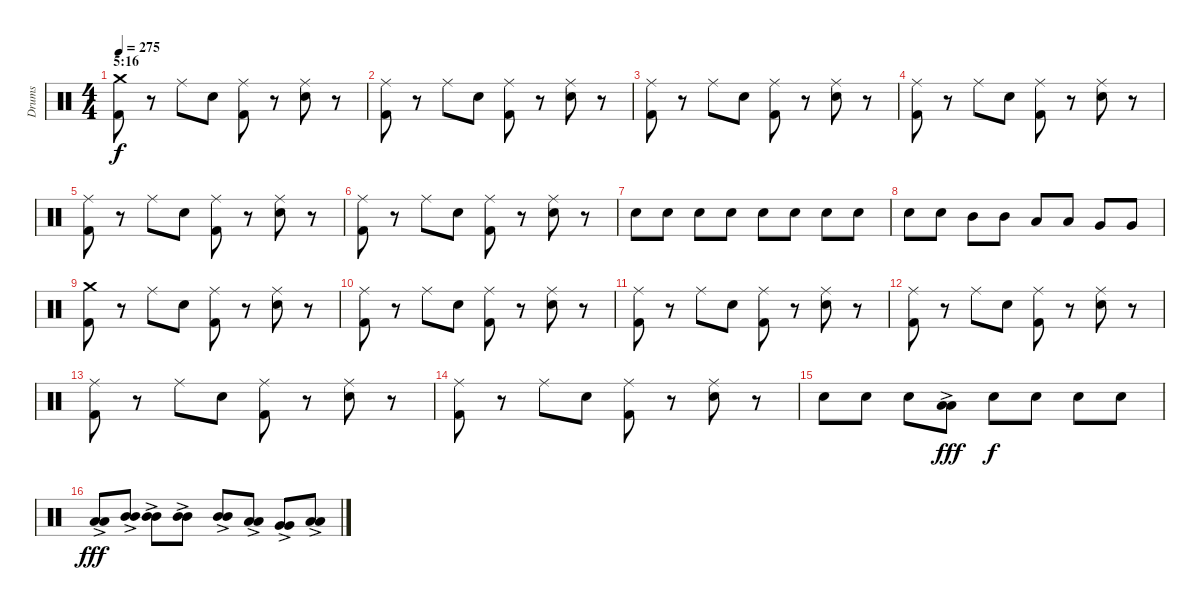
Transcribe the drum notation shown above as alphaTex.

\track ("Drums" "Drums") {instrument percussion}
\staff {score}
\articulation defaults
\ts (4 4)
\section ("" "5:16")
\tempo 275
\clef neutral
\ks c
("Crash medium (hit)" "Kick (hit) 2").8{dy f} r.8 "Ride (middle)".8 "Electric Snare (hit)".8 ("Ride (middle)" "Kick (hit) 2").8 r.8 ("Ride (middle)" "Electric Snare (hit)").8 r.8 |
("Ride (middle)" "Kick (hit) 2").8 r.8 "Ride (middle)".8 "Electric Snare (hit)".8 ("Ride (middle)" "Kick (hit) 2").8 r.8 ("Ride (middle)" "Electric Snare (hit)").8 r.8 |
("Ride (middle)" "Kick (hit) 2").8 r.8 "Ride (middle)".8 "Electric Snare (hit)".8 ("Ride (middle)" "Kick (hit) 2").8 r.8 ("Ride (middle)" "Electric Snare (hit)").8 r.8 |
("Ride (middle)" "Kick (hit) 2").8 r.8 "Ride (middle)".8 "Electric Snare (hit)".8 ("Ride (middle)" "Kick (hit) 2").8 r.8 ("Ride (middle)" "Electric Snare (hit)").8 r.8 |
("Ride (middle)" "Kick (hit) 2").8 r.8 "Ride (middle)".8 "Electric Snare (hit)".8 ("Ride (middle)" "Kick (hit) 2").8 r.8 ("Ride (middle)" "Electric Snare (hit)").8 r.8 |
("Ride (middle)" "Kick (hit) 2").8 r.8 "Ride (middle)".8 "Electric Snare (hit)".8 ("Ride (middle)" "Kick (hit) 2").8 r.8 ("Ride (middle)" "Electric Snare (hit)").8 r.8 |
"Electric Snare (hit)".8 "Electric Snare (hit)".8 "Electric Snare (hit)".8 "Electric Snare (hit)".8 "Electric Snare (hit)".8 "Electric Snare (hit)".8 "Electric Snare (hit)".8 "Electric Snare (hit)".8 |
"Electric Snare (hit)".8 "Electric Snare (hit)".8 "Mid Tom (hit)".8 "Mid Tom (hit)".8 "Low Tom (hit)".8 "Low Tom (hit)".8 "Very Low Tom (hit)".8 "Very Low Tom (hit)".8 |
("Crash medium (hit)" "Kick (hit) 2").8 r.8 "Ride (middle)".8 "Electric Snare (hit)".8 ("Ride (middle)" "Kick (hit) 2").8 r.8 ("Ride (middle)" "Electric Snare (hit)").8 r.8 |
("Ride (middle)" "Kick (hit) 2").8 r.8 "Ride (middle)".8 "Electric Snare (hit)".8 ("Ride (middle)" "Kick (hit) 2").8 r.8 ("Ride (middle)" "Electric Snare (hit)").8 r.8 |
("Ride (middle)" "Kick (hit) 2").8 r.8 "Ride (middle)".8 "Electric Snare (hit)".8 ("Ride (middle)" "Kick (hit) 2").8 r.8 ("Ride (middle)" "Electric Snare (hit)").8 r.8 |
("Ride (middle)" "Kick (hit) 2").8 r.8 "Ride (middle)".8 "Electric Snare (hit)".8 ("Ride (middle)" "Kick (hit) 2").8 r.8 ("Ride (middle)" "Electric Snare (hit)").8 r.8 |
("Ride (middle)" "Kick (hit) 2").8 r.8 "Ride (middle)".8 "Electric Snare (hit)".8 ("Ride (middle)" "Kick (hit) 2").8 r.8 ("Ride (middle)" "Electric Snare (hit)").8 r.8 |
("Ride (middle)" "Kick (hit) 2").8 r.8 "Ride (middle)".8 "Electric Snare (hit)".8 ("Ride (middle)" "Kick (hit) 2").8 r.8 ("Ride (middle)" "Electric Snare (hit)").8 r.8 |
"Electric Snare (hit)".8 "Electric Snare (hit)".8 "Electric Snare (hit)".8 ("Low Tom (hit)"{ac} "Low Tom (hit)"{ac}).8{dy fff} "Electric Snare (hit)".8{dy f} "Electric Snare (hit)".8 "Electric Snare (hit)".8 "Electric Snare (hit)".8 |
("Low Tom (hit)"{ac} "Low Tom (hit)"{ac}).8{dy fff} ("Mid Tom (hit)"{ac} "Mid Tom (hit)"{ac}).8 ("Mid Tom (hit)"{ac} "Mid Tom (hit)"{ac}).8 ("Mid Tom (hit)"{ac} "Mid Tom (hit)"{ac}).8 ("Mid Tom (hit)"{ac} "Mid Tom (hit)"{ac}).8 ("Low Tom (hit)"{ac} "Low Tom (hit)"{ac}).8 ("Very Low Tom (hit)"{ac} "Very Low Tom (hit)"{ac}).8 ("Low Floor Tom (hit)"{ac} "Low Floor Tom (hit)"{ac}).8
